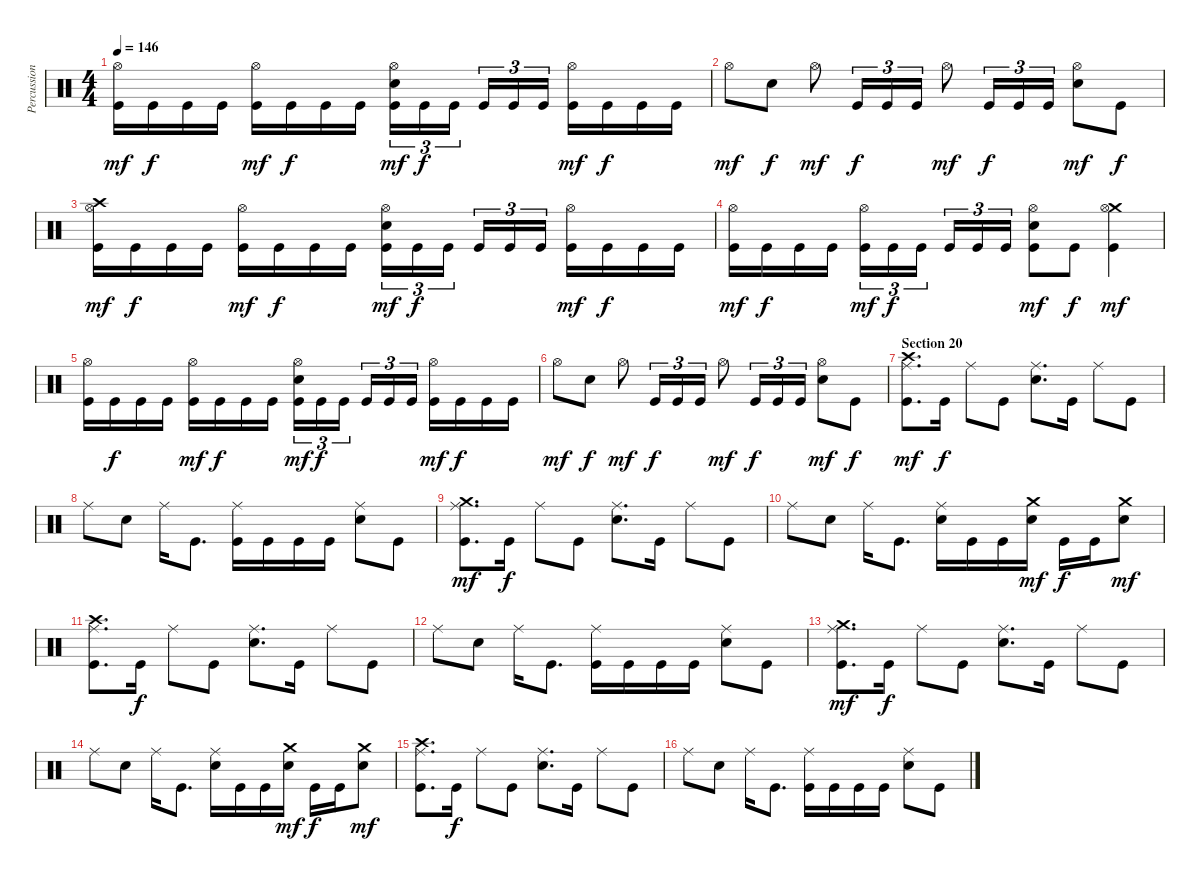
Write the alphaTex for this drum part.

\track ("Percussion" "Percussion") {instrument percussion}
\staff {score}
\articulation defaults
\ts (4 4)
\tempo 146
\clef neutral
\ks c
("Hi-Hat (open)" "Kick (hit)").16{dy mf} "Kick (hit)".16{dy f} "Kick (hit)".16 "Kick (hit)".16 ("Hi-Hat (open)" "Kick (hit)").16{dy mf} "Kick (hit)".16{dy f} "Kick (hit)".16 "Kick (hit)".16 ("Hi-Hat (open)" "Electric Snare (hit)" "Kick (hit)").16{tu (3 2) dy mf} "Kick (hit)".16{tu (3 2) dy f} "Kick (hit)".16{tu (3 2) beam splitsecondary} "Kick (hit)".16{tu (3 2)} "Kick (hit)".16{tu (3 2)} "Kick (hit)".16{tu (3 2)} ("Hi-Hat (open)" "Kick (hit)").16{dy mf} "Kick (hit)".16{dy f} "Kick (hit)".16 "Kick (hit)".16 |
"Hi-Hat (open)".8{dy mf} "Electric Snare (hit)".8{dy f} "Hi-Hat (open)".8{dy mf} "Kick (hit)".16{tu (3 2) dy f} "Kick (hit)".16{tu (3 2)} "Kick (hit)".16{tu (3 2)} "Hi-Hat (open)".8{dy mf} "Kick (hit)".16{tu (3 2) dy f} "Kick (hit)".16{tu (3 2)} "Kick (hit)".16{tu (3 2)} ("Hi-Hat (open)" "Electric Snare (hit)").8{dy mf} "Kick (hit)".8{dy f} |
("Crash high (hit)" "Hi-Hat (open)" "Kick (hit)").16{dy mf} "Kick (hit)".16{dy f} "Kick (hit)".16 "Kick (hit)".16 ("Hi-Hat (open)" "Kick (hit)").16{dy mf} "Kick (hit)".16{dy f} "Kick (hit)".16 "Kick (hit)".16 ("Hi-Hat (open)" "Electric Snare (hit)" "Kick (hit)").16{tu (3 2) dy mf} "Kick (hit)".16{tu (3 2) dy f} "Kick (hit)".16{tu (3 2) beam splitsecondary} "Kick (hit)".16{tu (3 2)} "Kick (hit)".16{tu (3 2)} "Kick (hit)".16{tu (3 2)} ("Hi-Hat (open)" "Kick (hit)").16{dy mf} "Kick (hit)".16{dy f} "Kick (hit)".16 "Kick (hit)".16 |
("Hi-Hat (open)" "Kick (hit)").16{dy mf} "Kick (hit)".16{dy f} "Kick (hit)".16 "Kick (hit)".16 ("Hi-Hat (open)" "Kick (hit)").16{tu (3 2) dy mf} "Kick (hit)".16{tu (3 2) dy f} "Kick (hit)".16{tu (3 2) beam splitsecondary} "Kick (hit)".16{tu (3 2)} "Kick (hit)".16{tu (3 2)} "Kick (hit)".16{tu (3 2)} ("Hi-Hat (open)" "Electric Snare (hit)" "Kick (hit)").8{dy mf} "Kick (hit)".8{dy f} ("Crash medium (hit)" "Hi-Hat (open)" "Kick (hit)").4{dy mf} |
("Hi-Hat (open)" "Kick (hit)").16 "Kick (hit)".16{dy f} "Kick (hit)".16 "Kick (hit)".16 ("Hi-Hat (open)" "Kick (hit)").16{dy mf} "Kick (hit)".16{dy f} "Kick (hit)".16 "Kick (hit)".16 ("Hi-Hat (open)" "Electric Snare (hit)" "Kick (hit)").16{tu (3 2) dy mf} "Kick (hit)".16{tu (3 2) dy f} "Kick (hit)".16{tu (3 2) beam splitsecondary} "Kick (hit)".16{tu (3 2)} "Kick (hit)".16{tu (3 2)} "Kick (hit)".16{tu (3 2)} ("Hi-Hat (open)" "Kick (hit)").16{dy mf} "Kick (hit)".16{dy f} "Kick (hit)".16 "Kick (hit)".16 |
"Hi-Hat (open)".8{dy mf} "Electric Snare (hit)".8{dy f} "Hi-Hat (open)".8{dy mf} "Kick (hit)".16{tu (3 2) dy f} "Kick (hit)".16{tu (3 2)} "Kick (hit)".16{tu (3 2)} "Hi-Hat (open)".8{dy mf} "Kick (hit)".16{tu (3 2) dy f} "Kick (hit)".16{tu (3 2)} "Kick (hit)".16{tu (3 2)} ("Hi-Hat (open)" "Electric Snare (hit)").8{dy mf} "Kick (hit)".8{dy f} |
\section ("" "Section 20")
("Crash high (hit)" "Ride (middle)" "Kick (hit)").8{d dy mf} "Kick (hit)".16{dy f} "Ride (middle)".8 "Kick (hit)".8 ("Ride (middle)" "Electric Snare (hit)").8{d} "Kick (hit)".16 "Ride (middle)".8 "Kick (hit)".8 |
"Ride (middle)".8 "Electric Snare (hit)".8 "Ride (middle)".16 "Kick (hit)".8{d} ("Ride (middle)" "Kick (hit)").16 "Kick (hit)".16 "Kick (hit)".16 "Kick (hit)".16 ("Ride (middle)" "Electric Snare (hit)").8 "Kick (hit)".8 |
("Crash medium (hit)" "Ride (middle)" "Kick (hit)").8{d dy mf} "Kick (hit)".16{dy f} "Ride (middle)".8 "Kick (hit)".8 ("Ride (middle)" "Electric Snare (hit)").8{d} "Kick (hit)".16 "Ride (middle)".8 "Kick (hit)".8 |
"Ride (middle)".8 "Electric Snare (hit)".8 "Ride (middle)".16 "Kick (hit)".8{d} ("Ride (middle)" "Electric Snare (hit)").16 "Kick (hit)".16 "Kick (hit)".16 ("Crash medium (hit)" "Electric Snare (hit)").16{dy mf} "Kick (hit)".16{dy f} "Kick (hit)".16 ("Crash medium (hit)" "Electric Snare (hit)").8{dy mf} |
("Crash high (hit)" "Ride (middle)" "Kick (hit)").8{d} "Kick (hit)".16{dy f} "Ride (middle)".8 "Kick (hit)".8 ("Ride (middle)" "Electric Snare (hit)").8{d} "Kick (hit)".16 "Ride (middle)".8 "Kick (hit)".8 |
"Ride (middle)".8 "Electric Snare (hit)".8 "Ride (middle)".16 "Kick (hit)".8{d} ("Ride (middle)" "Kick (hit)").16 "Kick (hit)".16 "Kick (hit)".16 "Kick (hit)".16 ("Ride (middle)" "Electric Snare (hit)").8 "Kick (hit)".8 |
("Crash medium (hit)" "Ride (middle)" "Kick (hit)").8{d dy mf} "Kick (hit)".16{dy f} "Ride (middle)".8 "Kick (hit)".8 ("Ride (middle)" "Electric Snare (hit)").8{d} "Kick (hit)".16 "Ride (middle)".8 "Kick (hit)".8 |
"Ride (middle)".8 "Electric Snare (hit)".8 "Ride (middle)".16 "Kick (hit)".8{d} ("Ride (middle)" "Electric Snare (hit)").16 "Kick (hit)".16 "Kick (hit)".16 ("Crash medium (hit)" "Electric Snare (hit)").16{dy mf} "Kick (hit)".16{dy f} "Kick (hit)".16 ("Crash medium (hit)" "Electric Snare (hit)").8{dy mf} |
("Crash high (hit)" "Ride (middle)" "Kick (hit)").8{d} "Kick (hit)".16{dy f} "Ride (middle)".8 "Kick (hit)".8 ("Ride (middle)" "Electric Snare (hit)").8{d} "Kick (hit)".16 "Ride (middle)".8 "Kick (hit)".8 |
"Ride (middle)".8 "Electric Snare (hit)".8 "Ride (middle)".16 "Kick (hit)".8{d} ("Ride (middle)" "Kick (hit)").16 "Kick (hit)".16 "Kick (hit)".16 "Kick (hit)".16 ("Ride (middle)" "Electric Snare (hit)").8 "Kick (hit)".8
